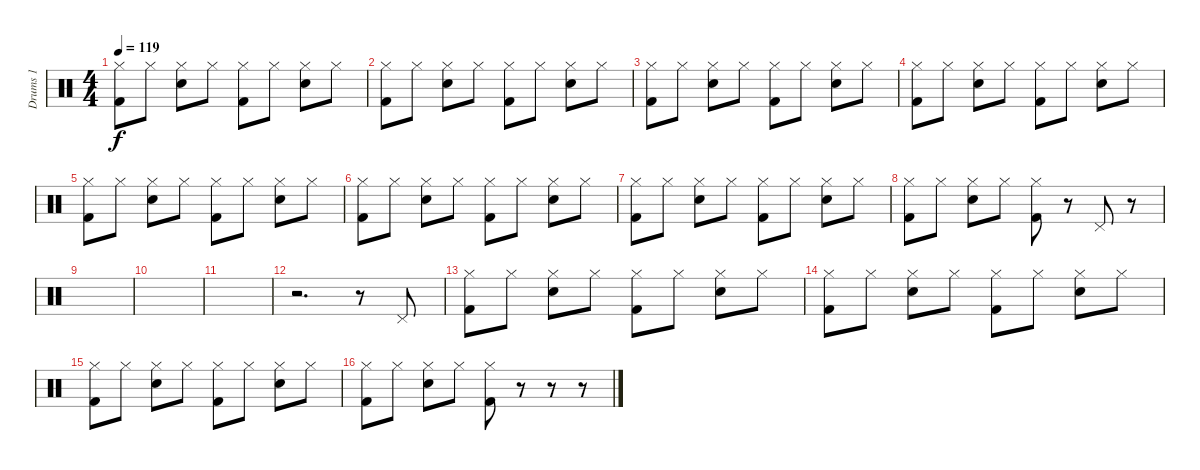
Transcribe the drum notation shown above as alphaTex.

\track ("Drums 1" "Drums 1") {instrument percussion}
\staff {score}
\articulation defaults
\ts (4 4)
\tempo 119
\clef neutral
\ks c
("Hi-Hat (closed)" "Kick (hit) 2").8{dy f} "Hi-Hat (closed)".8 ("Hi-Hat (closed)" "Electric Snare (hit)").8 "Hi-Hat (closed)".8 ("Hi-Hat (closed)" "Kick (hit) 2").8 "Hi-Hat (closed)".8 ("Hi-Hat (closed)" "Electric Snare (hit)").8 "Hi-Hat (closed)".8 |
("Hi-Hat (closed)" "Kick (hit) 2").8 "Hi-Hat (closed)".8 ("Hi-Hat (closed)" "Electric Snare (hit)").8 "Hi-Hat (closed)".8 ("Hi-Hat (closed)" "Kick (hit) 2").8 "Hi-Hat (closed)".8 ("Hi-Hat (closed)" "Electric Snare (hit)").8 "Hi-Hat (closed)".8 |
("Hi-Hat (closed)" "Kick (hit) 2").8 "Hi-Hat (closed)".8 ("Hi-Hat (closed)" "Electric Snare (hit)").8 "Hi-Hat (closed)".8 ("Hi-Hat (closed)" "Kick (hit) 2").8 "Hi-Hat (closed)".8 ("Hi-Hat (closed)" "Electric Snare (hit)").8 "Hi-Hat (closed)".8 |
("Hi-Hat (closed)" "Kick (hit) 2").8 "Hi-Hat (closed)".8 ("Hi-Hat (closed)" "Electric Snare (hit)").8 "Hi-Hat (closed)".8 ("Hi-Hat (closed)" "Kick (hit) 2").8 "Hi-Hat (closed)".8 ("Hi-Hat (closed)" "Electric Snare (hit)").8 "Hi-Hat (closed)".8 |
("Hi-Hat (closed)" "Kick (hit) 2").8 "Hi-Hat (closed)".8 ("Hi-Hat (closed)" "Electric Snare (hit)").8 "Hi-Hat (closed)".8 ("Hi-Hat (closed)" "Kick (hit) 2").8 "Hi-Hat (closed)".8 ("Hi-Hat (closed)" "Electric Snare (hit)").8 "Hi-Hat (closed)".8 |
("Hi-Hat (closed)" "Kick (hit) 2").8 "Hi-Hat (closed)".8 ("Hi-Hat (closed)" "Electric Snare (hit)").8 "Hi-Hat (closed)".8 ("Hi-Hat (closed)" "Kick (hit) 2").8 "Hi-Hat (closed)".8 ("Hi-Hat (closed)" "Electric Snare (hit)").8 "Hi-Hat (closed)".8 |
("Hi-Hat (closed)" "Kick (hit) 2").8 "Hi-Hat (closed)".8 ("Hi-Hat (closed)" "Electric Snare (hit)").8 "Hi-Hat (closed)".8 ("Hi-Hat (closed)" "Kick (hit) 2").8 "Hi-Hat (closed)".8 ("Hi-Hat (closed)" "Electric Snare (hit)").8 "Hi-Hat (closed)".8 |
("Hi-Hat (closed)" "Kick (hit) 2").8 "Hi-Hat (closed)".8 ("Hi-Hat (closed)" "Electric Snare (hit)").8 "Hi-Hat (closed)".8 ("Hi-Hat (closed)" "Kick (hit) 2").8 r.8 "Pedal Hi-Hat (hit)".8 r.8 |
|
|
|
r.2{d} r.8 "Pedal Hi-Hat (hit)".8 |
("Hi-Hat (closed)" "Kick (hit) 2").8 "Hi-Hat (closed)".8 ("Hi-Hat (closed)" "Electric Snare (hit)").8 "Hi-Hat (closed)".8 ("Hi-Hat (closed)" "Kick (hit) 2").8 "Hi-Hat (closed)".8 ("Hi-Hat (closed)" "Electric Snare (hit)").8 "Hi-Hat (closed)".8 |
("Hi-Hat (closed)" "Kick (hit) 2").8 "Hi-Hat (closed)".8 ("Hi-Hat (closed)" "Electric Snare (hit)").8 "Hi-Hat (closed)".8 ("Hi-Hat (closed)" "Kick (hit) 2").8 "Hi-Hat (closed)".8 ("Hi-Hat (closed)" "Electric Snare (hit)").8 "Hi-Hat (closed)".8 |
("Hi-Hat (closed)" "Kick (hit) 2").8 "Hi-Hat (closed)".8 ("Hi-Hat (closed)" "Electric Snare (hit)").8 "Hi-Hat (closed)".8 ("Hi-Hat (closed)" "Kick (hit) 2").8 "Hi-Hat (closed)".8 ("Hi-Hat (closed)" "Electric Snare (hit)").8 "Hi-Hat (closed)".8 |
("Hi-Hat (closed)" "Kick (hit) 2").8 "Hi-Hat (closed)".8 ("Hi-Hat (closed)" "Electric Snare (hit)").8 "Hi-Hat (closed)".8 ("Hi-Hat (closed)" "Kick (hit) 2").8 r.8 r.8 r.8
